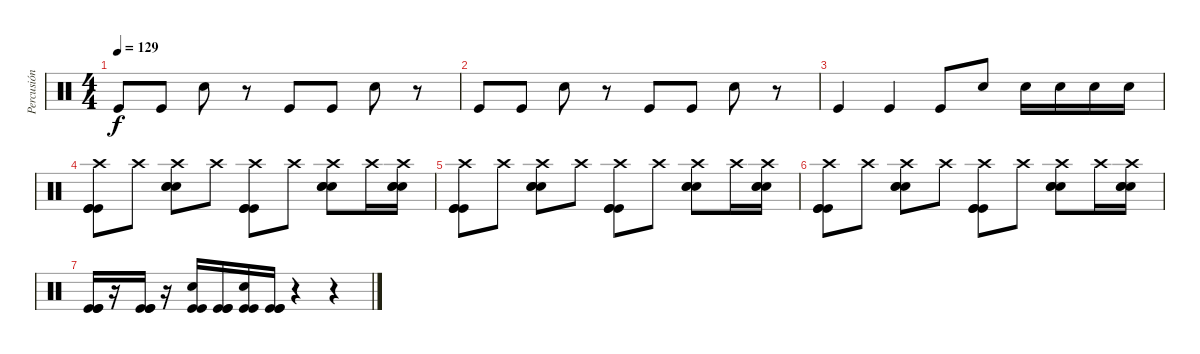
\track ("Percusión" "Percusión") {instrument percussion}
\staff {score}
\articulation defaults
\ts (4 4)
\tempo 129
\clef neutral
\ks c "Kick (hit)".8{dy f} "Kick (hit)".8 "Electric Snare (hit)".8
r.8 "Kick (hit)".8 "Kick (hit)".8 "Electric Snare (hit)".8 r.8 |
"Kick (hit)".8 "Kick (hit)".8 "Electric Snare (hit)".8 r.8 "Kick (hit)".8 "Kick (hit)".8 "Electric Snare (hit)".8 r.8 |
"Kick (hit)".4 "Kick (hit)".4 "Kick (hit)".8 "Electric Snare (hit)".8 "Electric Snare (hit)".16 "Electric Snare (hit)".16 "Electric Snare (hit)".16 "Electric Snare (hit)".16 |
("Crash high (hit)" "Kick (hit)" "Kick (hit)" "Kick (hit)").8 "Crash high (hit)".8 ("Crash high (hit)" "Electric Snare (hit)" "Electric Snare (hit)" "Electric Snare (hit)").8 "Crash high (hit)".8 ("Crash high (hit)" "Kick (hit)" "Kick (hit)" "Kick (hit)").8 "Crash high (hit)".8 ("Crash high (hit)" "Electric Snare (hit)" "Electric Snare (hit)" "Electric Snare (hit)").8 "Crash high (hit)".16 ("Crash high (hit)" "Electric Snare (hit)" "Electric Snare (hit)" "Electric Snare (hit)").16 |
("Crash high (hit)" "Kick (hit)" "Kick (hit)" "Kick (hit)").8 "Crash high (hit)".8 ("Crash high (hit)" "Electric Snare (hit)" "Electric Snare (hit)" "Electric Snare (hit)").8 "Crash high (hit)".8 ("Crash high (hit)" "Kick (hit)" "Kick (hit)" "Kick (hit)").8 "Crash high (hit)".8 ("Crash high (hit)" "Electric Snare (hit)" "Electric Snare (hit)" "Electric Snare (hit)").8 "Crash high (hit)".16 ("Crash high (hit)" "Electric Snare (hit)" "Electric Snare (hit)" "Electric Snare (hit)").16 |
("Crash high (hit)" "Kick (hit)" "Kick (hit)" "Kick (hit)").8 "Crash high (hit)".8 ("Crash high (hit)" "Electric Snare (hit)" "Electric Snare (hit)" "Electric Snare (hit)").8 "Crash high (hit)".8 ("Crash high (hit)" "Kick (hit)" "Kick (hit)" "Kick (hit)").8 "Crash high (hit)".8 ("Crash high (hit)" "Electric Snare (hit)" "Electric Snare (hit)" "Electric Snare (hit)").8 "Crash high (hit)".16 ("Crash high (hit)" "Electric Snare (hit)" "Electric Snare (hit)" "Electric Snare (hit)").16 |
("Kick (hit)" "Kick (hit)" "Kick (hit)").16 r.16 ("Kick (hit)" "Kick (hit)" "Kick (hit)").16 r.16 ("Kick (hit)" "Kick (hit)" "Electric Snare (hit)").16 ("Kick (hit)" "Kick (hit)" "Kick (hit)").16 ("Kick (hit)" "Kick (hit)" "Electric Snare (hit)").16 ("Kick (hit)" "Kick (hit)" "Kick (hit)").16 r.4 r.4
